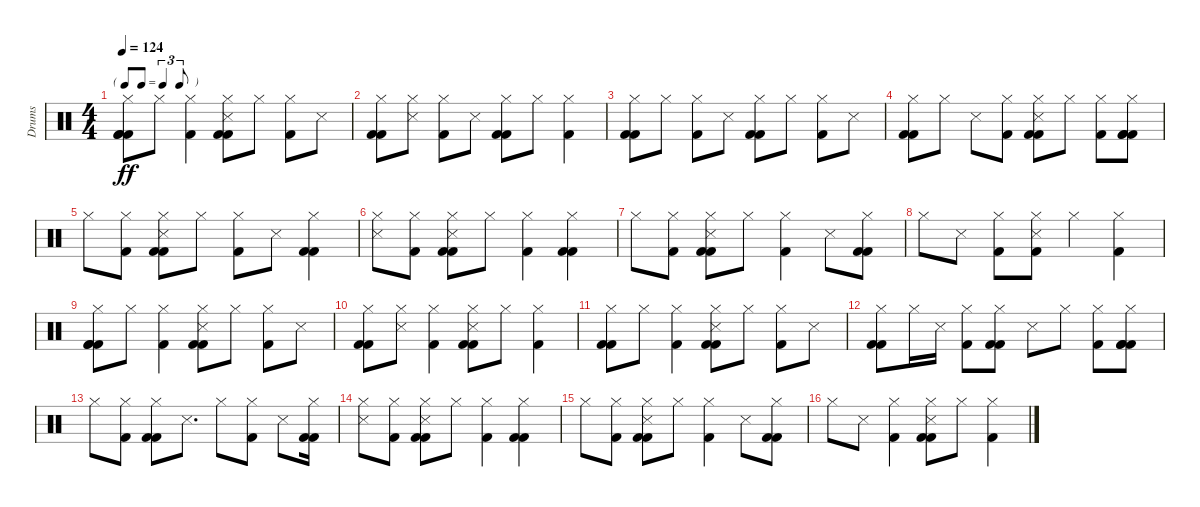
\track ("Drums" "Drums") {instrument percussion}
\staff {score}
\articulation defaults
\ts (4 4)
\tf triplet8th
\tempo 124
\clef neutral
\ks c
("Kick (hit) 2" "Kick (hit) 2" "Kick (hit) 2" "Hi-Hat (closed)").8{dy ff} "Hi-Hat (closed)".8 ("Kick (hit) 2" "Hi-Hat (closed)").4 ("Kick (hit) 2" "Kick (hit) 2" "Hi-Hat (closed)" "Snare (side stick) 3").8 "Hi-Hat (closed)".8 ("Kick (hit) 2" "Hi-Hat (closed)").8 "Snare (side stick) 3".8 |
("Kick (hit) 2" "Kick (hit) 2" "Hi-Hat (closed)").8 ("Snare (side stick) 3" "Hi-Hat (closed)").8 ("Kick (hit) 2" "Hi-Hat (closed)").8 "Snare (side stick) 3".8 ("Kick (hit) 2" "Kick (hit) 2" "Hi-Hat (closed)").8 "Hi-Hat (closed)".8 ("Kick (hit) 2" "Hi-Hat (closed)").4 |
("Kick (hit) 2" "Kick (hit) 2" "Hi-Hat (closed)").8 "Hi-Hat (closed)".8 ("Kick (hit) 2" "Hi-Hat (closed)").8 "Snare (side stick) 3".8 ("Kick (hit) 2" "Kick (hit) 2" "Hi-Hat (closed)").8 "Hi-Hat (closed)".8 ("Kick (hit) 2" "Hi-Hat (closed)").8 "Snare (side stick) 3".8 |
("Kick (hit) 2" "Kick (hit) 2" "Hi-Hat (closed)").8 "Hi-Hat (closed)".8 "Snare (side stick) 3".8 ("Kick (hit) 2" "Hi-Hat (closed)").8 ("Kick (hit) 2" "Kick (hit) 2" "Hi-Hat (closed)" "Snare (side stick) 3").8 "Hi-Hat (closed)".8 ("Kick (hit) 2" "Hi-Hat (closed)").8 ("Kick (hit) 2" "Kick (hit) 2" "Kick (hit) 2" "Hi-Hat (closed)").8 |
"Hi-Hat (closed)".8 ("Kick (hit) 2" "Hi-Hat (closed)").8 ("Kick (hit) 2" "Kick (hit) 2" "Hi-Hat (closed)" "Snare (side stick) 3").8 "Hi-Hat (closed)".8 ("Kick (hit) 2" "Hi-Hat (closed)").8 "Snare (side stick) 3".8 ("Kick (hit) 2" "Kick (hit) 2" "Hi-Hat (closed)").4 |
("Snare (side stick) 3" "Hi-Hat (closed)").8 ("Kick (hit) 2" "Hi-Hat (closed)").8 ("Snare (side stick) 3" "Kick (hit) 2" "Kick (hit) 2" "Hi-Hat (closed)").8 "Hi-Hat (closed)".8 ("Kick (hit) 2" "Hi-Hat (closed)").4 ("Kick (hit) 2" "Kick (hit) 2" "Hi-Hat (closed)").4 |
"Hi-Hat (closed)".8 ("Kick (hit) 2" "Hi-Hat (closed)").8 ("Snare (side stick) 3" "Kick (hit) 2" "Kick (hit) 2" "Hi-Hat (closed)").8 "Hi-Hat (closed)".8 ("Kick (hit) 2" "Hi-Hat (closed)").4 "Snare (side stick) 3".8 ("Kick (hit) 2" "Kick (hit) 2" "Hi-Hat (closed)").8 |
"Hi-Hat (closed)".8 "Snare (side stick) 3".8 ("Kick (hit) 2" "Hi-Hat (closed)").8 ("Kick (hit) 2" "Hi-Hat (closed)" "Snare (side stick) 3").8 "Hi-Hat (closed)".4 ("Kick (hit) 2" "Hi-Hat (closed)").4 |
("Kick (hit) 2" "Kick (hit) 2" "Kick (hit) 2" "Hi-Hat (closed)").8 "Hi-Hat (closed)".8 ("Kick (hit) 2" "Hi-Hat (closed)").4 ("Kick (hit) 2" "Kick (hit) 2" "Hi-Hat (closed)" "Snare (side stick) 3").8 "Hi-Hat (closed)".8 ("Kick (hit) 2" "Hi-Hat (closed)").8 "Snare (side stick) 3".8 |
("Kick (hit) 2" "Kick (hit) 2" "Hi-Hat (closed)").8 ("Snare (side stick) 3" "Hi-Hat (closed)").8 ("Kick (hit) 2" "Hi-Hat (closed)").4 ("Snare (side stick) 3" "Kick (hit) 2" "Kick (hit) 2" "Hi-Hat (closed)").8 "Hi-Hat (closed)".8 ("Kick (hit) 2" "Hi-Hat (closed)").4 |
("Kick (hit) 2" "Kick (hit) 2" "Hi-Hat (closed)").8 "Hi-Hat (closed)".8 ("Kick (hit) 2" "Hi-Hat (closed)").4 ("Snare (side stick) 3" "Kick (hit) 2" "Kick (hit) 2" "Hi-Hat (closed)").8 "Hi-Hat (closed)".8 ("Kick (hit) 2" "Hi-Hat (closed)").8 "Snare (side stick) 3".8 |
("Kick (hit) 2" "Kick (hit) 2" "Hi-Hat (closed)").8 "Hi-Hat (closed)".16 "Snare (side stick) 3".16 ("Kick (hit) 2" "Hi-Hat (closed)").8 ("Kick (hit) 2" "Kick (hit) 2" "Hi-Hat (closed)").8 "Snare (side stick) 3".8 "Hi-Hat (closed)".8 ("Kick (hit) 2" "Hi-Hat (closed)").8 ("Kick (hit) 2" "Kick (hit) 2" "Kick (hit) 2" "Hi-Hat (closed)").8 |
"Hi-Hat (closed)".8 ("Kick (hit) 2" "Hi-Hat (closed)").8 ("Kick (hit) 2" "Kick (hit) 2" "Hi-Hat (closed)").8 "Snare (side stick) 3".8{d} "Hi-Hat (closed)".8 ("Kick (hit) 2" "Hi-Hat (closed)").8 "Snare (side stick) 3".8 ("Kick (hit) 2" "Kick (hit) 2" "Hi-Hat (closed)").16 |
("Snare (side stick) 3" "Hi-Hat (closed)").8 ("Kick (hit) 2" "Hi-Hat (closed)").8 ("Snare (side stick) 3" "Kick (hit) 2" "Kick (hit) 2" "Hi-Hat (closed)").8 "Hi-Hat (closed)".8 ("Kick (hit) 2" "Hi-Hat (closed)").4 ("Kick (hit) 2" "Kick (hit) 2" "Hi-Hat (closed)").4 |
"Hi-Hat (closed)".8 ("Kick (hit) 2" "Hi-Hat (closed)").8 ("Snare (side stick) 3" "Kick (hit) 2" "Kick (hit) 2" "Hi-Hat (closed)").8 "Hi-Hat (closed)".8 ("Kick (hit) 2" "Hi-Hat (closed)").4 "Snare (side stick) 3".8 ("Kick (hit) 2" "Kick (hit) 2" "Hi-Hat (closed)").8 |
"Hi-Hat (closed)".8 "Snare (side stick) 3".8 ("Kick (hit) 2" "Hi-Hat (closed)").4 ("Kick (hit) 2" "Kick (hit) 2" "Hi-Hat (closed)" "Snare (side stick) 3").8 "Hi-Hat (closed)".8 ("Kick (hit) 2" "Hi-Hat (closed)").4
